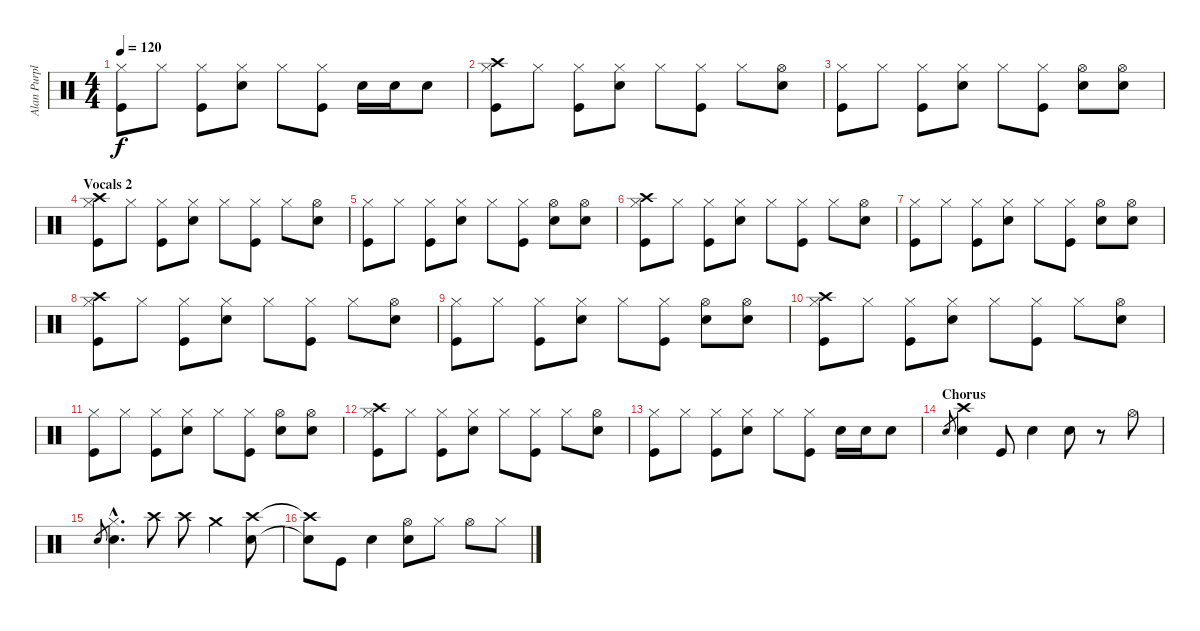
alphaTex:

\track ("Alan Purple" "Alan Purpl") {instrument percussion}
\staff {score}
\articulation defaults
\ts (4 4)
\tempo 120
\clef neutral
\ks c
("Hi-Hat (closed)" "Kick (hit)").8{dy f} "Hi-Hat (closed)".8 ("Hi-Hat (closed)" "Kick (hit)").8 ("Hi-Hat (closed)" "Snare (hit) 2").8 "Hi-Hat (closed)".8 ("Hi-Hat (closed)" "Kick (hit)").8 "Electric Snare (hit)".16 "Electric Snare (hit)".16 "Electric Snare (hit)".8 |
("Crash high (hit)" "Hi-Hat (closed)" "Kick (hit)").8 "Hi-Hat (closed)".8 ("Hi-Hat (closed)" "Kick (hit)").8 ("Hi-Hat (closed)" "Snare (hit) 2").8 "Hi-Hat (closed)".8 ("Hi-Hat (closed)" "Kick (hit)").8 "Hi-Hat (closed)".8 ("Hi-Hat (open)" "Snare (hit) 2").8 |
("Hi-Hat (closed)" "Kick (hit)").8 "Hi-Hat (closed)".8 ("Hi-Hat (closed)" "Kick (hit)").8 ("Hi-Hat (closed)" "Snare (hit) 2").8 "Hi-Hat (closed)".8 ("Hi-Hat (closed)" "Kick (hit)").8 ("Hi-Hat (open)" "Electric Snare (hit)").8 ("Hi-Hat (open)" "Snare (hit) 2").8 |
\section ("" "Vocals 2")
("Crash high (hit)" "Hi-Hat (closed)" "Kick (hit)").8 "Hi-Hat (closed)".8 ("Hi-Hat (closed)" "Kick (hit)").8 ("Hi-Hat (closed)" "Snare (hit) 2").8 "Hi-Hat (closed)".8 ("Hi-Hat (closed)" "Kick (hit)").8 "Hi-Hat (closed)".8 ("Hi-Hat (open)" "Snare (hit) 2").8 |
("Hi-Hat (closed)" "Kick (hit)").8 "Hi-Hat (closed)".8 ("Hi-Hat (closed)" "Kick (hit)").8 ("Hi-Hat (closed)" "Snare (hit) 2").8 "Hi-Hat (closed)".8 ("Hi-Hat (closed)" "Kick (hit)").8 ("Hi-Hat (open)" "Electric Snare (hit)").8 ("Hi-Hat (open)" "Snare (hit) 2").8 |
("Crash high (hit)" "Hi-Hat (closed)" "Kick (hit)").8 "Hi-Hat (closed)".8 ("Hi-Hat (closed)" "Kick (hit)").8 ("Hi-Hat (closed)" "Snare (hit) 2").8 "Hi-Hat (closed)".8 ("Hi-Hat (closed)" "Kick (hit)").8 "Hi-Hat (closed)".8 ("Hi-Hat (open)" "Snare (hit) 2").8 |
("Hi-Hat (closed)" "Kick (hit)").8 "Hi-Hat (closed)".8 ("Hi-Hat (closed)" "Kick (hit)").8 ("Hi-Hat (closed)" "Snare (hit) 2").8 "Hi-Hat (closed)".8 ("Hi-Hat (closed)" "Kick (hit)").8 ("Hi-Hat (open)" "Electric Snare (hit)").8 ("Hi-Hat (open)" "Snare (hit) 2").8 |
("Crash high (hit)" "Hi-Hat (closed)" "Kick (hit)").8 "Hi-Hat (closed)".8 ("Hi-Hat (closed)" "Kick (hit)").8 ("Hi-Hat (closed)" "Snare (hit) 2").8 "Hi-Hat (closed)".8 ("Hi-Hat (closed)" "Kick (hit)").8 "Hi-Hat (closed)".8 ("Hi-Hat (open)" "Snare (hit) 2").8 |
("Hi-Hat (closed)" "Kick (hit)").8 "Hi-Hat (closed)".8 ("Hi-Hat (closed)" "Kick (hit)").8 ("Hi-Hat (closed)" "Snare (hit) 2").8 "Hi-Hat (closed)".8 ("Hi-Hat (closed)" "Kick (hit)").8 ("Hi-Hat (open)" "Electric Snare (hit)").8 ("Hi-Hat (open)" "Snare (hit) 2").8 |
("Crash high (hit)" "Hi-Hat (closed)" "Kick (hit)").8 "Hi-Hat (closed)".8 ("Hi-Hat (closed)" "Kick (hit)").8 ("Hi-Hat (closed)" "Snare (hit) 2").8 "Hi-Hat (closed)".8 ("Hi-Hat (closed)" "Kick (hit)").8 "Hi-Hat (closed)".8 ("Hi-Hat (open)" "Snare (hit) 2").8 |
("Hi-Hat (closed)" "Kick (hit)").8 "Hi-Hat (closed)".8 ("Hi-Hat (closed)" "Kick (hit)").8 ("Hi-Hat (closed)" "Snare (hit) 2").8 "Hi-Hat (closed)".8 ("Hi-Hat (closed)" "Kick (hit)").8 ("Hi-Hat (open)" "Electric Snare (hit)").8 ("Hi-Hat (open)" "Snare (hit) 2").8 |
("Crash high (hit)" "Hi-Hat (closed)" "Kick (hit)").8 "Hi-Hat (closed)".8 ("Hi-Hat (closed)" "Kick (hit)").8 ("Hi-Hat (closed)" "Snare (hit) 2").8 "Hi-Hat (closed)".8 ("Hi-Hat (closed)" "Kick (hit)").8 "Hi-Hat (closed)".8 ("Hi-Hat (open)" "Snare (hit) 2").8 |
("Hi-Hat (closed)" "Kick (hit)").8 "Hi-Hat (closed)".8 ("Hi-Hat (closed)" "Kick (hit)").8 ("Hi-Hat (closed)" "Snare (hit) 2").8 "Hi-Hat (closed)".8 ("Hi-Hat (closed)" "Kick (hit)").8 "Electric Snare (hit)".16 "Electric Snare (hit)".16 "Electric Snare (hit)".8 |
\section ("" "Chorus")
"Snare (hit) 2".8{gr} ("Crash high (hit)" "Snare (hit) 2").4 "Kick (hit)".8 "Snare (hit) 2".4 "Snare (hit) 2".8 r.8 "Hi-Hat (open)".8 |
"Snare (hit) 2".8{gr} ("Hi-Hat (closed)"{hac} "Snare (hit) 2"{hac}).4{d} "Crash high (hit)".8 "Crash high (hit)".8 "Crash medium (hit)".4 ("Crash high (hit)" "Snare (hit) 2").8 |
("Crash high (hit)"{t} "Snare (hit) 2"{t}).8 "Kick (hit)".8 "Snare (hit) 2".4 ("Hi-Hat (open)" "Snare (hit) 2").8 "Hi-Hat (closed)".8 "Hi-Hat (open)".8 "Hi-Hat (closed)".8
